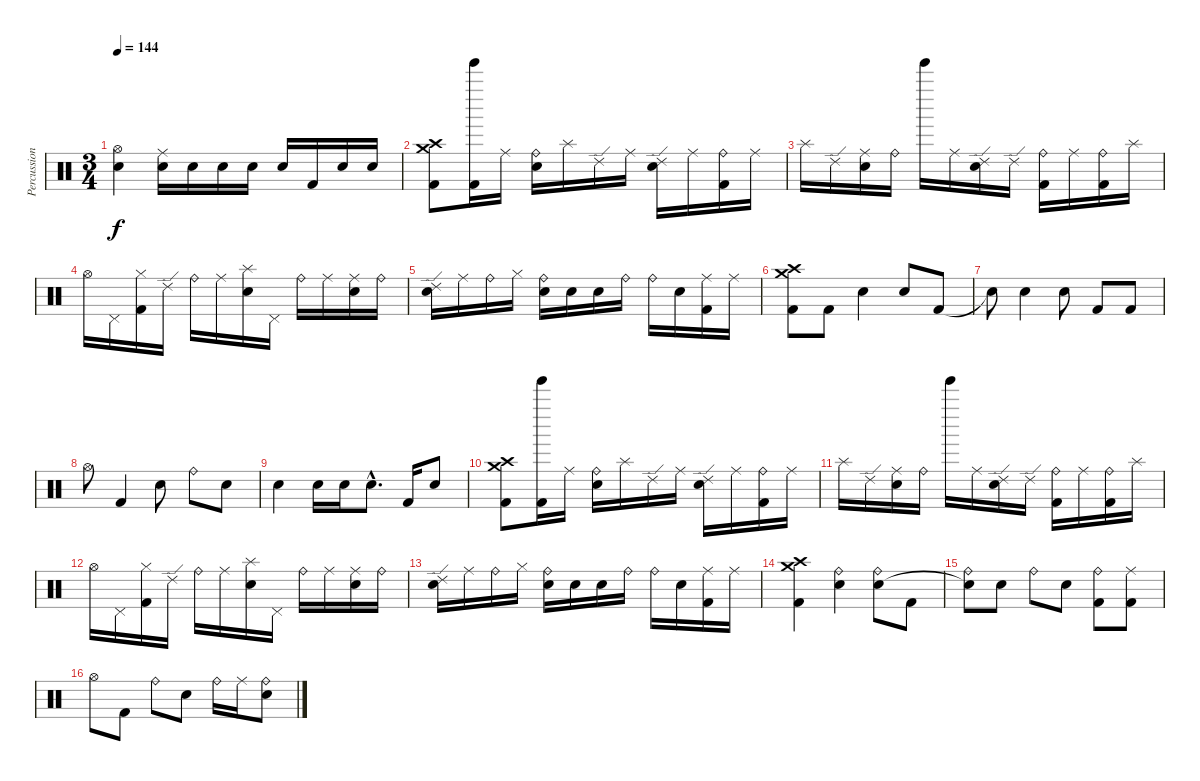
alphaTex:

\track ("Percussion" "Percussion") {instrument percussion}
\staff {score}
\articulation defaults
\ts (3 4)
\tempo 144
\clef neutral
\ks c
("Hi-Hat (open)" "Electric Snare (hit)").4{dy f} ("Ride (middle)" "Electric Snare (hit)").16 "Electric Snare (hit)".16 "Electric Snare (hit)".16 "Electric Snare (hit)".16 "Electric Snare (hit)".16 "Kick (hit) 2".16 "Electric Snare (hit)".16 "Electric Snare (hit)".16 |
("Crash high (hit)" "Crash medium (hit)" "Kick (hit) 2").8 ("Tinkle Bell (hit)" "Kick (hit) 2").16 "Ride (middle)".16 ("Ride (bell)" "Electric Snare (hit)").16 "Splash (hit)".16 "Ride (edge) 2".16 "Ride (middle)".16 ("Ride (edge) 2" "Electric Snare (hit)").16 "Ride (middle)".16 ("Ride (bell)" "Kick (hit) 2").16 "Ride (middle)".16 |
"Splash (hit)".16 "Ride (edge) 2".16 ("Ride (middle)" "Electric Snare (hit)").16 "Ride (bell)".16 "Tinkle Bell (hit)".16 "Ride (middle)".16 ("Ride (edge) 2" "Electric Snare (hit)").16 "Ride (edge) 2".16 ("Ride (bell)" "Kick (hit) 2").16 "Ride (middle)".16 ("Ride (bell)" "Kick (hit) 2").16 "Splash (hit)".16 |
"Hi-Hat (open)".16 "Pedal Hi-Hat (hit)".16 ("Hi-Hat (closed)" "Kick (hit) 2").16 "Ride (edge) 2".16 "Ride (bell)".16 "Ride (middle)".16 ("Splash (hit)" "Electric Snare (hit)").16 "Pedal Hi-Hat (hit)".16 "Ride (bell)".16 "Ride (middle)".16 ("Ride (middle)" "Electric Snare (hit)").16 "Ride (bell)".16 |
("Ride (edge) 2" "Electric Snare (hit)").16 "Ride (middle)".16 "Ride (bell)".16 "Hi-Hat (closed)".16 ("Ride (bell)" "Electric Snare (hit)").16 "Electric Snare (hit)".16 "Electric Snare (hit)".16 "Ride (bell)".16 "Ride (bell)".16 "Electric Snare (hit)".16 ("Ride (middle)" "Kick (hit) 2").16 "Ride (middle)".16 |
("Crash high (hit)" "Crash medium (hit)" "Kick (hit) 2").8 "Kick (hit) 2".8 "Electric Snare (hit)".4 "Electric Snare (hit)".8 "Kick (hit) 2".8 |
"Snare (hit)"{t}.8 "Electric Snare (hit)".4 "Electric Snare (hit)".8 "Kick (hit) 2".8 "Kick (hit) 2".8 |
"Hi-Hat (open)".8 "Kick (hit) 2".4 "Electric Snare (hit)".8 "Ride (bell)".8 "Electric Snare (hit)".8 |
"Electric Snare (hit)".4 "Electric Snare (hit)".16 "Electric Snare (hit)".16 "Electric Snare (hit)"{hac}.8{d} "Kick (hit) 2".16 "Electric Snare (hit)".8 |
("Crash high (hit)" "Crash medium (hit)" "Kick (hit) 2").8 ("Tinkle Bell (hit)" "Kick (hit) 2").16 "Ride (middle)".16 ("Ride (bell)" "Electric Snare (hit)").16 "Splash (hit)".16 "Ride (edge) 2".16 "Ride (middle)".16 ("Ride (edge) 2" "Electric Snare (hit)").16 "Ride (middle)".16 ("Ride (bell)" "Kick (hit) 2").16 "Ride (middle)".16 |
"Splash (hit)".16 "Ride (edge) 2".16 ("Ride (middle)" "Electric Snare (hit)").16 "Ride (bell)".16 "Tinkle Bell (hit)".16 "Ride (middle)".16 ("Ride (edge) 2" "Electric Snare (hit)").16 "Ride (edge) 2".16 ("Ride (bell)" "Kick (hit) 2").16 "Ride (middle)".16 ("Ride (bell)" "Kick (hit) 2").16 "Splash (hit)".16 |
"Hi-Hat (open)".16 "Pedal Hi-Hat (hit)".16 ("Hi-Hat (closed)" "Kick (hit) 2").16 "Ride (edge) 2".16 "Ride (bell)".16 "Ride (middle)".16 ("Splash (hit)" "Electric Snare (hit)").16 "Pedal Hi-Hat (hit)".16 "Ride (bell)".16 "Ride (middle)".16 ("Ride (middle)" "Electric Snare (hit)").16 "Ride (bell)".16 |
("Ride (edge) 2" "Electric Snare (hit)").16 "Ride (middle)".16 "Ride (bell)".16 "Hi-Hat (closed)".16 ("Ride (bell)" "Electric Snare (hit)").16 "Electric Snare (hit)".16 "Electric Snare (hit)".16 "Ride (bell)".16 "Ride (bell)".16 "Electric Snare (hit)".16 ("Ride (middle)" "Kick (hit) 2").16 "Ride (middle)".16 |
("Crash medium (hit)" "Crash high (hit)" "Kick (hit) 2").4 ("Ride (bell)" "Electric Snare (hit)").4 ("Ride (bell)" "Electric Snare (hit)").8 "Kick (hit) 2".8 |
("Ride (bell)" "Snare (hit)"{t}).8 "Electric Snare (hit)".8 "Ride (bell)".8 "Electric Snare (hit)".8 ("Ride (bell)" "Kick (hit) 2").8 ("Ride (middle)" "Kick (hit) 2").8 |
"Hi-Hat (open)".8 "Kick (hit) 2".8 "Ride (bell)".8 "Electric Snare (hit)".8 "Ride (bell)".16 "Ride (middle)".16 ("Ride (bell)" "Electric Snare (hit)").8
